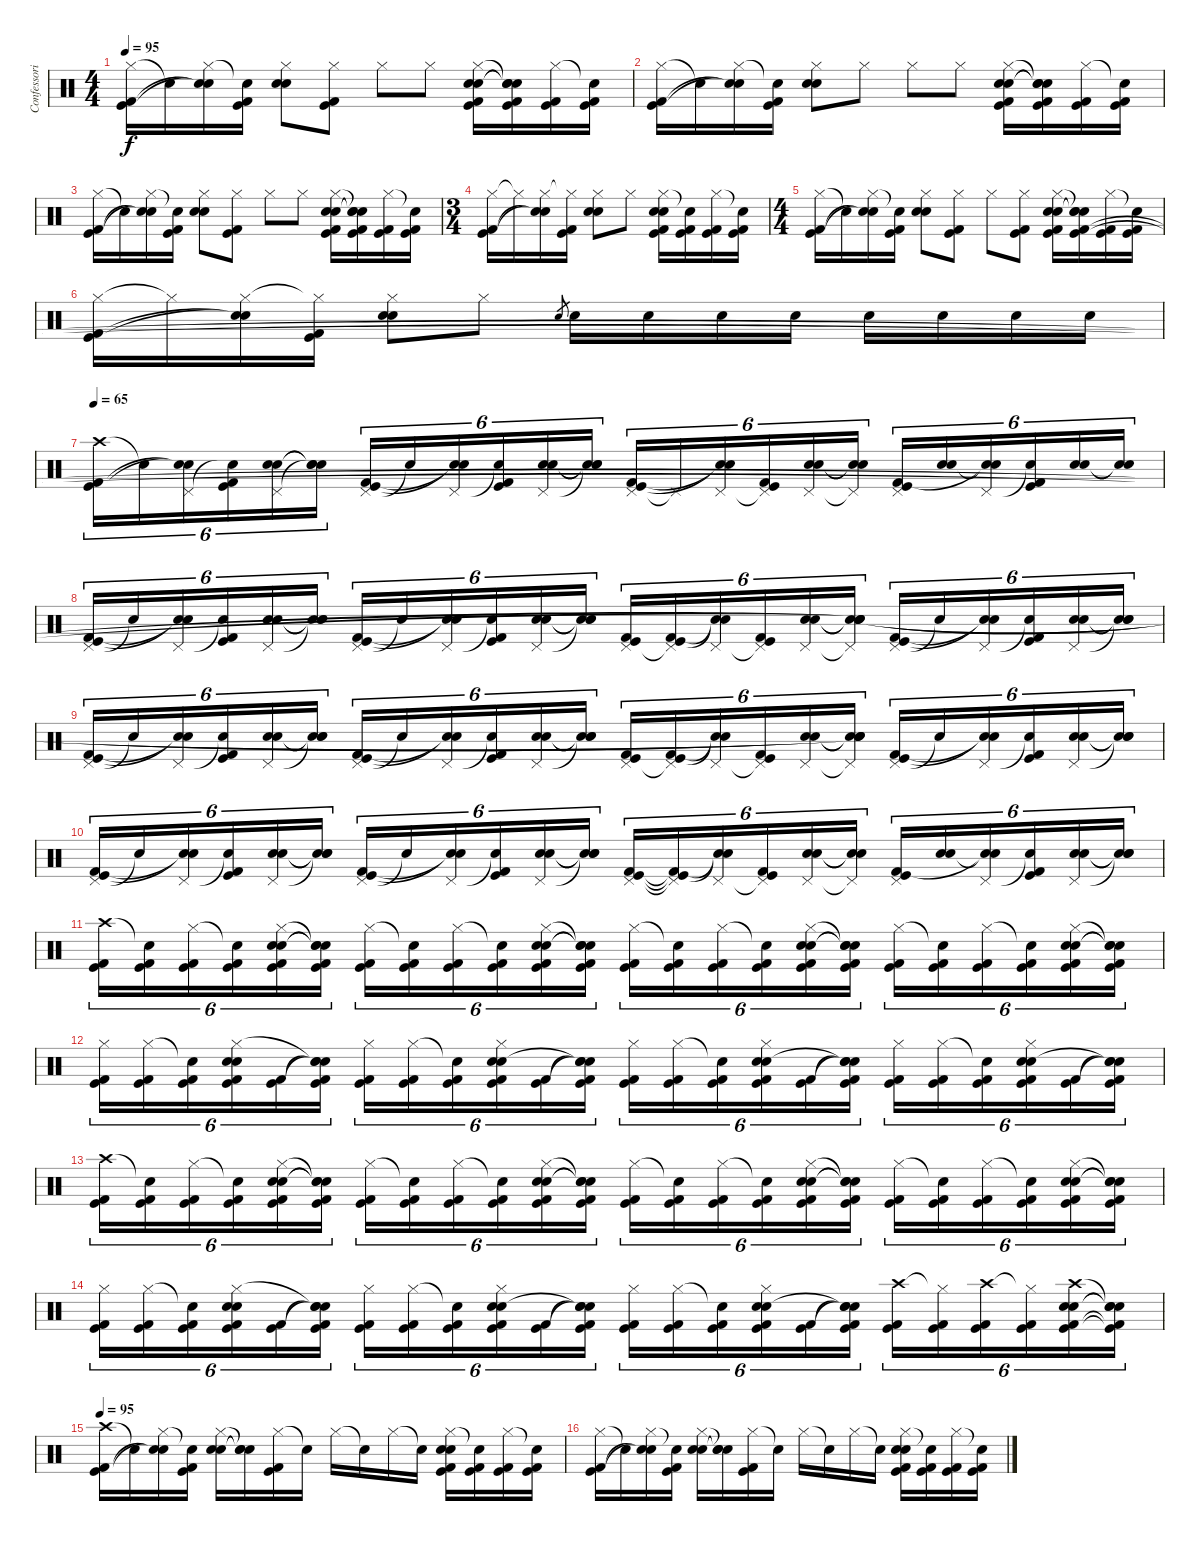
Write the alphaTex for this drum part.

\track ("Confessori" "Confessori") {instrument percussion}
\staff {score}
\articulation defaults
\ts (4 4)
\tempo 95
\clef neutral
\ks c
("Hi-Hat (closed)" "Kick (hit)" "Kick (hit) 2").16{dy f} "Snare (hit)"{t}.16 ("Hi-Hat (closed)" "Snare (hit)"{t} "Snare (hit)"{t}).16 ("Snare (hit)"{t} "Kick (hit)" "Kick (hit) 2").16 ("Hi-Hat (closed)" "Electric Snare (hit)" "Snare (hit) 2").8 ("Hi-Hat (closed)" "Kick (hit)" "Kick (hit) 2").8 "Hi-Hat (closed)".8 "Hi-Hat (closed)".8 ("Hi-Hat (closed)" "Electric Snare (hit)" "Snare (hit) 2" "Kick (hit)" "Kick (hit) 2").16 ("Snare (hit)"{t} "Snare (hit)"{t} "Snare (hit)"{t} "Kick (hit)" "Kick (hit) 2").16 ("Hi-Hat (closed)" "Kick (hit)" "Kick (hit) 2").16 ("Snare (hit)"{t} "Kick (hit)" "Kick (hit) 2").16 |
("Hi-Hat (closed)" "Kick (hit)" "Kick (hit) 2").16 "Snare (hit)"{t}.16 ("Hi-Hat (closed)" "Snare (hit)"{t} "Snare (hit)"{t}).16 ("Snare (hit)"{t} "Kick (hit)" "Kick (hit) 2").16 ("Hi-Hat (closed)" "Electric Snare (hit)" "Snare (hit) 2").8 "Hi-Hat (closed)".8 "Hi-Hat (closed)".8 "Hi-Hat (closed)".8 ("Hi-Hat (closed)" "Electric Snare (hit)" "Snare (hit) 2" "Kick (hit)" "Kick (hit) 2").16 ("Snare (hit)"{t} "Snare (hit)"{t} "Snare (hit)"{t} "Kick (hit)" "Kick (hit) 2").16 ("Hi-Hat (closed)" "Kick (hit)" "Kick (hit) 2").16 ("Snare (hit)"{t} "Kick (hit)" "Kick (hit) 2").16 |
("Hi-Hat (closed)" "Kick (hit)" "Kick (hit) 2").16 "Snare (hit)"{t}.16 ("Hi-Hat (closed)" "Snare (hit)"{t} "Snare (hit)"{t}).16 ("Snare (hit)"{t} "Kick (hit)" "Kick (hit) 2").16 ("Hi-Hat (closed)" "Electric Snare (hit)" "Snare (hit) 2").8 ("Hi-Hat (closed)" "Kick (hit)" "Kick (hit) 2").8 "Hi-Hat (closed)".8 "Hi-Hat (closed)".8 ("Hi-Hat (closed)" "Electric Snare (hit)" "Snare (hit) 2" "Kick (hit)" "Kick (hit) 2").16 ("Snare (hit)"{t} "Snare (hit)"{t} "Snare (hit)"{t} "Kick (hit)" "Kick (hit) 2").16 ("Hi-Hat (closed)" "Kick (hit)" "Kick (hit) 2").16 ("Snare (hit)"{t} "Kick (hit)" "Kick (hit) 2").16 |
\ts (3 4)
("Hi-Hat (closed)" "Kick (hit)" "Kick (hit) 2").16 "Hi-Hat (closed)"{t}.16 ("Hi-Hat (closed)" "Snare (hit)"{t} "Snare (hit)"{t}).16 ("Hi-Hat (closed)"{t} "Kick (hit) 2" "Kick (hit)").16 ("Hi-Hat (closed)" "Electric Snare (hit)" "Snare (hit) 2").8 "Hi-Hat (closed)".8 ("Hi-Hat (closed)" "Electric Snare (hit)" "Snare (hit) 2" "Kick (hit)" "Kick (hit) 2").16 ("Snare (hit)"{t} "Kick (hit)" "Kick (hit) 2").16 ("Hi-Hat (closed)" "Kick (hit)" "Kick (hit) 2").16 ("Snare (hit)"{t} "Kick (hit)" "Kick (hit) 2").16 |
\ts (4 4)
("Hi-Hat (closed)" "Kick (hit)" "Kick (hit) 2").16 "Snare (hit)"{t}.16 ("Hi-Hat (closed)" "Snare (hit)"{t} "Snare (hit)"{t}).16 ("Snare (hit)"{t} "Kick (hit)" "Kick (hit) 2").16 ("Hi-Hat (closed)" "Electric Snare (hit)" "Snare (hit) 2").8 ("Hi-Hat (closed)" "Kick (hit)" "Kick (hit) 2").8 "Hi-Hat (closed)".8 ("Hi-Hat (closed)" "Kick (hit)" "Kick (hit) 2").8 ("Hi-Hat (closed)" "Electric Snare (hit)" "Snare (hit) 2" "Kick (hit)" "Kick (hit) 2").16 ("Snare (hit)"{t} "Snare (hit)"{t} "Snare (hit)"{t} "Kick (hit)" "Kick (hit) 2").16 ("Hi-Hat (closed)" "Kick (hit)" "Kick (hit) 2").16 ("Snare (hit)"{t} "Kick (hit)" "Kick (hit) 2").16 |
("Hi-Hat (closed)" "Kick (hit)" "Kick (hit) 2").16 "Hi-Hat (closed)"{t}.16 ("Hi-Hat (closed)" "Snare (hit)"{t} "Snare (hit)"{t}).16 ("Hi-Hat (closed)"{t} "Kick (hit) 2" "Kick (hit)").16 ("Hi-Hat (closed)" "Electric Snare (hit)" "Snare (hit) 2").8 "Hi-Hat (closed)".8 "Electric Snare (hit)".8{gr} "Electric Snare (hit)".16 "Electric Snare (hit)".16 "Electric Snare (hit)".16 "Electric Snare (hit)".16 "Electric Snare (hit)".16 "Electric Snare (hit)".16 "Electric Snare (hit)".16 "Electric Snare (hit)".16 |
\tempo 65
("Crash high (hit)" "Kick (hit)" "Kick (hit) 2").16{tu (6 4) volume 12 balance 8} "Snare (hit)"{t}.16{tu (6 4)} ("Pedal Hi-Hat (hit)" "Snare (hit)"{t} "Snare (hit)"{t}).16{tu (6 4)} ("Snare (hit)"{t} "Kick (hit) 2" "Kick (hit)").16{tu (6 4)} ("Pedal Hi-Hat (hit)" "Electric Snare (hit)" "Snare (hit) 2").16{tu (6 4)} ("Snare (hit)"{t} "Snare (hit)"{t} "Snare (hit)"{t}).16{tu (6 4)} ("Pedal Hi-Hat (hit)" "Kick (hit) 2" "Kick (hit)").16{tu (6 4)} "Snare (hit)"{t}.16{tu (6 4)} ("Pedal Hi-Hat (hit)" "Snare (hit)"{t} "Snare (hit)"{t}).16{tu (6 4)} ("Snare (hit)"{t} "Kick (hit) 2" "Kick (hit)").16{tu (6 4)} ("Pedal Hi-Hat (hit)" "Electric Snare (hit)" "Snare (hit) 2").16{tu (6 4)} ("Snare (hit)"{t} "Snare (hit)"{t} "Snare (hit)"{t}).16{tu (6 4)} ("Pedal Hi-Hat (hit)" "Kick (hit)" "Kick (hit) 2").16{tu (6 4)} "Pedal Hi-Hat (hit)"{t}.16{tu (6 4)} ("Pedal Hi-Hat (hit)" "Snare (hit)"{t} "Snare (hit)"{t}).16{tu (6 4)} ("Pedal Hi-Hat (hit)"{t} "Kick (hit) 2" "Kick (hit)").16{tu (6 4)} ("Pedal Hi-Hat (hit)" "Electric Snare (hit)" "Snare (hit) 2").16{tu (6 4)} ("Pedal Hi-Hat (hit)"{t} "Snare (hit)"{t} "Snare (hit)"{t}).16{tu (6 4)} ("Pedal Hi-Hat (hit)" "Kick (hit)" "Kick (hit) 2").16{tu (6 4)} ("Electric Snare (hit)" "Snare (hit) 2").16{tu (6 4)} ("Pedal Hi-Hat (hit)" "Snare (hit)"{t} "Snare (hit)"{t}).16{tu (6 4)} ("Snare (hit)"{t} "Kick (hit)" "Kick (hit) 2").16{tu (6 4)} ("Electric Snare (hit)" "Snare (hit) 2").16{tu (6 4)} ("Snare (hit)"{t} "Snare (hit)"{t}).16{tu (6 4)} |
("Pedal Hi-Hat (hit)" "Kick (hit)" "Kick (hit) 2").16{tu (6 4)} "Snare (hit)"{t}.16{tu (6 4)} ("Pedal Hi-Hat (hit)" "Snare (hit)"{t} "Snare (hit)"{t}).16{tu (6 4)} ("Snare (hit)"{t} "Kick (hit) 2" "Kick (hit)").16{tu (6 4)} ("Pedal Hi-Hat (hit)" "Electric Snare (hit)" "Snare (hit) 2").16{tu (6 4)} ("Snare (hit)"{t} "Snare (hit)"{t} "Snare (hit)"{t}).16{tu (6 4)} ("Pedal Hi-Hat (hit)" "Kick (hit) 2" "Kick (hit)").16{tu (6 4)} "Snare (hit)"{t}.16{tu (6 4)} ("Pedal Hi-Hat (hit)" "Snare (hit)"{t} "Snare (hit)"{t}).16{tu (6 4)} ("Snare (hit)"{t} "Kick (hit) 2" "Kick (hit)").16{tu (6 4)} ("Pedal Hi-Hat (hit)" "Electric Snare (hit)" "Snare (hit) 2").16{tu (6 4)} ("Snare (hit)"{t} "Snare (hit)"{t} "Snare (hit)"{t}).16{tu (6 4)} ("Pedal Hi-Hat (hit)" "Kick (hit)" "Kick (hit) 2").16{tu (6 4)} ("Pedal Hi-Hat (hit)"{t} "Kick (hit)" "Kick (hit) 2").16{tu (6 4)} ("Pedal Hi-Hat (hit)" "Snare (hit)"{t} "Snare (hit)"{t}).16{tu (6 4)} ("Pedal Hi-Hat (hit)"{t} "Kick (hit) 2" "Kick (hit)").16{tu (6 4)} ("Pedal Hi-Hat (hit)" "Electric Snare (hit)" "Snare (hit) 2").16{tu (6 4)} ("Pedal Hi-Hat (hit)"{t} "Snare (hit)"{t} "Snare (hit)"{t} "Snare (hit)"{t} "Snare (hit)"{t}).16{tu (6 4)} ("Pedal Hi-Hat (hit)" "Kick (hit)" "Kick (hit) 2").16{tu (6 4)} "Snare (hit)"{t}.16{tu (6 4)} ("Pedal Hi-Hat (hit)" "Snare (hit)"{t} "Snare (hit)"{t}).16{tu (6 4)} ("Snare (hit)"{t} "Kick (hit)" "Kick (hit) 2").16{tu (6 4)} ("Pedal Hi-Hat (hit)" "Electric Snare (hit)" "Snare (hit) 2").16{tu (6 4)} ("Snare (hit)"{t} "Snare (hit)"{t} "Snare (hit)"{t}).16{tu (6 4)} |
("Pedal Hi-Hat (hit)" "Kick (hit)" "Kick (hit) 2").16{tu (6 4)} "Snare (hit)"{t}.16{tu (6 4)} ("Pedal Hi-Hat (hit)" "Snare (hit)"{t} "Snare (hit)"{t}).16{tu (6 4)} ("Snare (hit)"{t} "Kick (hit) 2" "Kick (hit)").16{tu (6 4)} ("Pedal Hi-Hat (hit)" "Electric Snare (hit)" "Snare (hit) 2").16{tu (6 4)} ("Snare (hit)"{t} "Snare (hit)"{t} "Snare (hit)"{t}).16{tu (6 4)} ("Pedal Hi-Hat (hit)" "Kick (hit) 2" "Kick (hit)").16{tu (6 4)} "Snare (hit)"{t}.16{tu (6 4)} ("Pedal Hi-Hat (hit)" "Snare (hit)"{t} "Snare (hit)"{t}).16{tu (6 4)} ("Snare (hit)"{t} "Kick (hit) 2" "Kick (hit)").16{tu (6 4)} ("Pedal Hi-Hat (hit)" "Electric Snare (hit)" "Snare (hit) 2").16{tu (6 4)} ("Snare (hit)"{t} "Snare (hit)"{t} "Snare (hit)"{t}).16{tu (6 4)} ("Pedal Hi-Hat (hit)" "Kick (hit)" "Kick (hit) 2").16{tu (6 4)} ("Pedal Hi-Hat (hit)"{t} "Kick (hit)" "Kick (hit) 2").16{tu (6 4)} ("Pedal Hi-Hat (hit)" "Snare (hit)"{t} "Snare (hit)"{t}).16{tu (6 4)} ("Pedal Hi-Hat (hit)"{t} "Kick (hit) 2" "Kick (hit)").16{tu (6 4)} ("Pedal Hi-Hat (hit)" "Electric Snare (hit)" "Snare (hit) 2").16{tu (6 4)} ("Pedal Hi-Hat (hit)"{t} "Snare (hit)"{t} "Snare (hit)"{t} "Snare (hit)"{t} "Snare (hit)"{t}).16{tu (6 4)} ("Pedal Hi-Hat (hit)" "Kick (hit)" "Kick (hit) 2").16{tu (6 4)} "Snare (hit)"{t}.16{tu (6 4)} ("Pedal Hi-Hat (hit)" "Snare (hit)"{t} "Snare (hit)"{t}).16{tu (6 4)} ("Snare (hit)"{t} "Kick (hit)" "Kick (hit) 2").16{tu (6 4)} ("Pedal Hi-Hat (hit)" "Electric Snare (hit)" "Snare (hit) 2").16{tu (6 4)} ("Snare (hit)"{t} "Snare (hit)"{t} "Snare (hit)"{t}).16{tu (6 4)} |
("Pedal Hi-Hat (hit)" "Kick (hit)" "Kick (hit) 2").16{tu (6 4)} "Snare (hit)"{t}.16{tu (6 4)} ("Pedal Hi-Hat (hit)" "Snare (hit)"{t} "Snare (hit)"{t}).16{tu (6 4)} ("Snare (hit)"{t} "Kick (hit) 2" "Kick (hit)").16{tu (6 4)} ("Pedal Hi-Hat (hit)" "Electric Snare (hit)" "Snare (hit) 2").16{tu (6 4)} ("Snare (hit)"{t} "Snare (hit)"{t} "Snare (hit)"{t}).16{tu (6 4)} ("Pedal Hi-Hat (hit)" "Kick (hit) 2" "Kick (hit)").16{tu (6 4)} "Snare (hit)"{t}.16{tu (6 4)} ("Pedal Hi-Hat (hit)" "Snare (hit)"{t} "Snare (hit)"{t}).16{tu (6 4)} ("Snare (hit)"{t} "Kick (hit) 2" "Kick (hit)").16{tu (6 4)} ("Pedal Hi-Hat (hit)" "Electric Snare (hit)" "Snare (hit) 2").16{tu (6 4)} ("Snare (hit)"{t} "Snare (hit)"{t} "Snare (hit)"{t}).16{tu (6 4)} ("Pedal Hi-Hat (hit)" "Kick (hit)" "Kick (hit) 2").16{tu (6 4)} ("Pedal Hi-Hat (hit)"{t} "Kick (hit)"{t} "Kick (hit) 2"{t}).16{tu (6 4)} ("Pedal Hi-Hat (hit)" "Snare (hit)"{t} "Snare (hit)"{t}).16{tu (6 4)} ("Pedal Hi-Hat (hit)"{t} "Kick (hit) 2" "Kick (hit)").16{tu (6 4)} ("Pedal Hi-Hat (hit)" "Electric Snare (hit)" "Snare (hit) 2").16{tu (6 4)} ("Pedal Hi-Hat (hit)"{t} "Snare (hit)"{t} "Snare (hit)"{t}).16{tu (6 4)} ("Pedal Hi-Hat (hit)" "Kick (hit)" "Kick (hit) 2").16{tu (6 4)} ("Electric Snare (hit)" "Snare (hit) 2").16{tu (6 4)} ("Pedal Hi-Hat (hit)" "Snare (hit)"{t} "Snare (hit)"{t}).16{tu (6 4)} ("Snare (hit)"{t} "Kick (hit)" "Kick (hit) 2").16{tu (6 4)} ("Pedal Hi-Hat (hit)" "Electric Snare (hit)" "Snare (hit) 2").16{tu (6 4)} ("Snare (hit)"{t} "Snare (hit)"{t} "Snare (hit)"{t}).16{tu (6 4)} |
("Crash high (hit)" "Kick (hit) 2" "Kick (hit)").16{tu (6 4)} ("Snare (hit)"{t} "Kick (hit) 2" "Kick (hit)").16{tu (6 4)} ("Hi-Hat (closed)" "Kick (hit) 2" "Kick (hit)").16{tu (6 4)} ("Snare (hit)"{t} "Kick (hit) 2" "Kick (hit)").16{tu (6 4)} ("Hi-Hat (closed)" "Electric Snare (hit)" "Snare (hit) 2" "Kick (hit) 2" "Kick (hit)").16{tu (6 4)} ("Snare (hit)"{t} "Snare (hit)"{t} "Snare (hit)"{t} "Kick (hit) 2" "Kick (hit)").16{tu (6 4)} ("Hi-Hat (closed)" "Kick (hit) 2" "Kick (hit)").16{tu (6 4)} ("Snare (hit)"{t} "Kick (hit) 2" "Kick (hit)").16{tu (6 4)} ("Hi-Hat (closed)" "Kick (hit) 2" "Kick (hit)").16{tu (6 4)} ("Snare (hit)"{t} "Kick (hit) 2" "Kick (hit)").16{tu (6 4)} ("Hi-Hat (closed)" "Electric Snare (hit)" "Snare (hit) 2" "Kick (hit) 2" "Kick (hit)").16{tu (6 4)} ("Snare (hit)"{t} "Snare (hit)"{t} "Snare (hit)"{t} "Kick (hit) 2" "Kick (hit)").16{tu (6 4)} ("Hi-Hat (closed)" "Kick (hit) 2" "Kick (hit)").16{tu (6 4)} ("Snare (hit)"{t} "Kick (hit) 2" "Kick (hit)").16{tu (6 4)} ("Hi-Hat (closed)" "Kick (hit) 2" "Kick (hit)").16{tu (6 4)} ("Snare (hit)"{t} "Kick (hit) 2" "Kick (hit)").16{tu (6 4)} ("Hi-Hat (closed)" "Electric Snare (hit)" "Snare (hit) 2" "Kick (hit) 2" "Kick (hit)").16{tu (6 4)} ("Snare (hit)"{t} "Snare (hit)"{t} "Snare (hit)"{t} "Kick (hit) 2" "Kick (hit)").16{tu (6 4)} ("Hi-Hat (closed)" "Kick (hit) 2" "Kick (hit)").16{tu (6 4)} ("Snare (hit)"{t} "Kick (hit) 2" "Kick (hit)").16{tu (6 4)} ("Hi-Hat (closed)" "Kick (hit) 2" "Kick (hit)").16{tu (6 4)} ("Snare (hit)"{t} "Kick (hit) 2" "Kick (hit)").16{tu (6 4)} ("Hi-Hat (closed)" "Electric Snare (hit)" "Snare (hit) 2" "Kick (hit) 2" "Kick (hit)").16{tu (6 4)} ("Snare (hit)"{t} "Snare (hit)"{t} "Snare (hit)"{t} "Kick (hit) 2" "Kick (hit)").16{tu (6 4)} |
("Hi-Hat (closed)" "Kick (hit)" "Kick (hit) 2").16{tu (6 4)} ("Hi-Hat (closed)" "Kick (hit)" "Kick (hit) 2").16{tu (6 4)} ("Snare (hit)"{t} "Kick (hit)" "Kick (hit) 2").16{tu (6 4)} ("Electric Snare (hit)" "Snare (hit) 2" "Hi-Hat (closed)" "Kick (hit)" "Kick (hit) 2").16{tu (6 4)} ("Kick (hit)" "Kick (hit) 2").16{tu (6 4)} ("Snare (hit)"{t} "Snare (hit)"{t} "Snare (hit)"{t} "Kick (hit)" "Kick (hit) 2").16{tu (6 4)} ("Hi-Hat (closed)" "Kick (hit)" "Kick (hit) 2").16{tu (6 4)} ("Hi-Hat (closed)" "Kick (hit)" "Kick (hit) 2").16{tu (6 4)} ("Snare (hit)"{t} "Kick (hit)" "Kick (hit) 2").16{tu (6 4)} ("Hi-Hat (closed)" "Electric Snare (hit)" "Snare (hit) 2" "Kick (hit)" "Kick (hit) 2").16{tu (6 4)} ("Kick (hit)" "Kick (hit) 2").16{tu (6 4)} ("Snare (hit)"{t} "Snare (hit)"{t} "Snare (hit)"{t} "Kick (hit)" "Kick (hit) 2").16{tu (6 4)} ("Hi-Hat (closed)" "Kick (hit)" "Kick (hit) 2").16{tu (6 4)} ("Hi-Hat (closed)" "Kick (hit)" "Kick (hit) 2").16{tu (6 4)} ("Snare (hit)"{t} "Kick (hit)" "Kick (hit) 2").16{tu (6 4)} ("Hi-Hat (closed)" "Electric Snare (hit)" "Snare (hit) 2" "Kick (hit)" "Kick (hit) 2").16{tu (6 4)} ("Kick (hit)" "Kick (hit) 2").16{tu (6 4)} ("Snare (hit)"{t} "Snare (hit)"{t} "Snare (hit)"{t} "Kick (hit)" "Kick (hit) 2").16{tu (6 4)} ("Hi-Hat (closed)" "Kick (hit)" "Kick (hit) 2").16{tu (6 4)} ("Hi-Hat (closed)" "Kick (hit)" "Kick (hit) 2").16{tu (6 4)} ("Snare (hit)"{t} "Kick (hit)" "Kick (hit) 2").16{tu (6 4)} ("Hi-Hat (closed)" "Electric Snare (hit)" "Snare (hit) 2" "Kick (hit)" "Kick (hit) 2").16{tu (6 4)} ("Kick (hit)" "Kick (hit) 2").16{tu (6 4)} ("Snare (hit)"{t} "Snare (hit)"{t} "Snare (hit)"{t} "Kick (hit)" "Kick (hit) 2").16{tu (6 4)} |
("Crash high (hit)" "Kick (hit) 2" "Kick (hit)").16{tu (6 4)} ("Snare (hit)"{t} "Kick (hit) 2" "Kick (hit)").16{tu (6 4)} ("Hi-Hat (closed)" "Kick (hit) 2" "Kick (hit)").16{tu (6 4)} ("Snare (hit)"{t} "Kick (hit) 2" "Kick (hit)").16{tu (6 4)} ("Hi-Hat (closed)" "Electric Snare (hit)" "Snare (hit) 2" "Kick (hit) 2" "Kick (hit)").16{tu (6 4)} ("Snare (hit)"{t} "Snare (hit)"{t} "Snare (hit)"{t} "Kick (hit) 2" "Kick (hit)").16{tu (6 4)} ("Hi-Hat (closed)" "Kick (hit) 2" "Kick (hit)").16{tu (6 4)} ("Snare (hit)"{t} "Kick (hit) 2" "Kick (hit)").16{tu (6 4)} ("Hi-Hat (closed)" "Kick (hit) 2" "Kick (hit)").16{tu (6 4)} ("Snare (hit)"{t} "Kick (hit) 2" "Kick (hit)").16{tu (6 4)} ("Hi-Hat (closed)" "Electric Snare (hit)" "Snare (hit) 2" "Kick (hit) 2" "Kick (hit)").16{tu (6 4)} ("Snare (hit)"{t} "Snare (hit)"{t} "Snare (hit)"{t} "Kick (hit) 2" "Kick (hit)").16{tu (6 4)} ("Hi-Hat (closed)" "Kick (hit) 2" "Kick (hit)").16{tu (6 4)} ("Snare (hit)"{t} "Kick (hit) 2" "Kick (hit)").16{tu (6 4)} ("Hi-Hat (closed)" "Kick (hit) 2" "Kick (hit)").16{tu (6 4)} ("Snare (hit)"{t} "Kick (hit) 2" "Kick (hit)").16{tu (6 4)} ("Hi-Hat (closed)" "Electric Snare (hit)" "Snare (hit) 2" "Kick (hit) 2" "Kick (hit)").16{tu (6 4)} ("Snare (hit)"{t} "Snare (hit)"{t} "Snare (hit)"{t} "Kick (hit) 2" "Kick (hit)").16{tu (6 4)} ("Hi-Hat (closed)" "Kick (hit) 2" "Kick (hit)").16{tu (6 4)} ("Snare (hit)"{t} "Kick (hit) 2" "Kick (hit)").16{tu (6 4)} ("Hi-Hat (closed)" "Kick (hit) 2" "Kick (hit)").16{tu (6 4)} ("Snare (hit)"{t} "Kick (hit) 2" "Kick (hit)").16{tu (6 4)} ("Hi-Hat (closed)" "Electric Snare (hit)" "Snare (hit) 2" "Kick (hit) 2" "Kick (hit)").16{tu (6 4)} ("Snare (hit)"{t} "Snare (hit)"{t} "Snare (hit)"{t} "Kick (hit) 2" "Kick (hit)").16{tu (6 4)} |
("Hi-Hat (closed)" "Kick (hit)" "Kick (hit) 2").16{tu (6 4)} ("Hi-Hat (closed)" "Kick (hit)" "Kick (hit) 2").16{tu (6 4)} ("Snare (hit)"{t} "Kick (hit)" "Kick (hit) 2").16{tu (6 4)} ("Electric Snare (hit)" "Snare (hit) 2" "Hi-Hat (closed)" "Kick (hit)" "Kick (hit) 2").16{tu (6 4)} ("Kick (hit)" "Kick (hit) 2").16{tu (6 4)} ("Snare (hit)"{t} "Snare (hit)"{t} "Snare (hit)"{t} "Kick (hit)" "Kick (hit) 2").16{tu (6 4)} ("Hi-Hat (closed)" "Kick (hit)" "Kick (hit) 2").16{tu (6 4)} ("Hi-Hat (closed)" "Kick (hit)" "Kick (hit) 2").16{tu (6 4)} ("Snare (hit)"{t} "Kick (hit)" "Kick (hit) 2").16{tu (6 4)} ("Hi-Hat (closed)" "Electric Snare (hit)" "Snare (hit) 2" "Kick (hit)" "Kick (hit) 2").16{tu (6 4)} ("Kick (hit)" "Kick (hit) 2").16{tu (6 4)} ("Snare (hit)"{t} "Snare (hit)"{t} "Snare (hit)"{t} "Kick (hit)" "Kick (hit) 2").16{tu (6 4)} ("Hi-Hat (closed)" "Kick (hit)" "Kick (hit) 2").16{tu (6 4)} ("Hi-Hat (closed)" "Kick (hit)" "Kick (hit) 2").16{tu (6 4)} ("Snare (hit)"{t} "Kick (hit)" "Kick (hit) 2").16{tu (6 4)} ("Hi-Hat (closed)" "Electric Snare (hit)" "Snare (hit) 2" "Kick (hit)" "Kick (hit) 2").16{tu (6 4)} ("Kick (hit)" "Kick (hit) 2").16{tu (6 4)} ("Snare (hit)"{t} "Snare (hit)"{t} "Snare (hit)"{t} "Kick (hit)" "Kick (hit) 2").16{tu (6 4)} ("Crash high (hit)" "Kick (hit)" "Kick (hit) 2").16{tu (6 4)} ("Hi-Hat (closed)"{t} "Kick (hit)" "Kick (hit) 2").16{tu (6 4)} ("Crash high (hit)" "Kick (hit)" "Kick (hit) 2").16{tu (6 4)} ("Hi-Hat (closed)"{t} "Kick (hit)" "Kick (hit) 2").16{tu (6 4)} ("Crash high (hit)" "Electric Snare (hit)" "Snare (hit) 2" "Kick (hit)" "Kick (hit) 2").16{tu (6 4)} ("Snare (hit)"{t} "Snare (hit)"{t} "Snare (hit)"{t} "Kick (hit)"{t} "Kick (hit) 2"{t}).16{tu (6 4)} |
\tempo 95
("Crash high (hit)" "Kick (hit)" "Kick (hit) 2").16{volume 12 balance 8} "Snare (hit)"{t}.16 ("Hi-Hat (closed)" "Snare (hit)"{t} "Snare (hit)"{t}).16 ("Snare (hit)"{t} "Kick (hit)" "Kick (hit) 2").16 ("Hi-Hat (closed)" "Electric Snare (hit)" "Snare (hit) 2").16 ("Snare (hit)"{t} "Snare (hit)"{t} "Snare (hit)"{t}).16 ("Hi-Hat (closed)" "Kick (hit)" "Kick (hit) 2").16 "Snare (hit)"{t}.16 "Hi-Hat (closed)".16 "Snare (hit)"{t}.16 "Hi-Hat (closed)".16 "Snare (hit)"{t}.16 ("Hi-Hat (closed)" "Electric Snare (hit)" "Snare (hit) 2" "Kick (hit)" "Kick (hit) 2").16 ("Snare (hit)"{t} "Kick (hit)" "Kick (hit) 2").16 ("Hi-Hat (closed)" "Kick (hit)" "Kick (hit) 2").16 ("Snare (hit)"{t} "Kick (hit)" "Kick (hit) 2").16 |
("Hi-Hat (closed)" "Kick (hit)" "Kick (hit) 2").16 "Snare (hit)"{t}.16 ("Hi-Hat (closed)" "Snare (hit)"{t} "Snare (hit)"{t}).16 ("Snare (hit)"{t} "Kick (hit)" "Kick (hit) 2").16 ("Hi-Hat (closed)" "Electric Snare (hit)" "Snare (hit) 2").16 ("Snare (hit)"{t} "Snare (hit)"{t} "Snare (hit)"{t}).16 ("Hi-Hat (closed)" "Kick (hit)" "Kick (hit) 2").16 "Snare (hit)"{t}.16 "Hi-Hat (closed)".16 "Snare (hit)"{t}.16 "Hi-Hat (closed)".16 "Snare (hit)"{t}.16 ("Hi-Hat (closed)" "Electric Snare (hit)" "Snare (hit) 2" "Kick (hit)" "Kick (hit) 2").16 ("Snare (hit)"{t} "Kick (hit)" "Kick (hit) 2").16 ("Hi-Hat (closed)" "Kick (hit)" "Kick (hit) 2").16 ("Snare (hit)"{t} "Kick (hit)" "Kick (hit) 2").16
